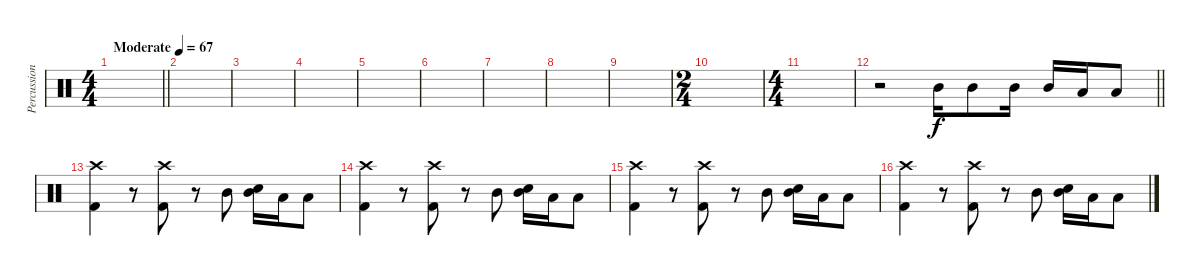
\track ("Percussion" "Percussion") {instrument percussion}
\staff {score}
\articulation defaults
\ts (4 4)
\tempo (67 "Moderate")
\clef neutral
\barLineRight lightlight
\ks c
|
|
|
|
|
|
|
|
|
\ts (2 4)
|
\ts (4 4)
|
\barLineRight lightlight
r.2 "Mid Tom (hit)".16 "Mid Tom (hit)".8 "Mid Tom (hit)".16 "Mid Tom (hit)".16 "Low Floor Tom (hit)".16 "Low Tom (hit)".8 |
("Crash high (hit)" "Kick (hit) 2").4 r.8 ("Crash high (hit)" "Kick (hit) 2").8 r.8 "Mid Tom (hit)".8 ("Mid Tom (hit)" "Snare (hit) 2").16 "Low Floor Tom (hit)".16 "Low Floor Tom (hit)".8 |
("Crash high (hit)" "Kick (hit) 2").4 r.8 ("Crash high (hit)" "Kick (hit) 2").8 r.8 "Mid Tom (hit)".8 ("Mid Tom (hit)" "Snare (hit) 2").16 "Low Floor Tom (hit)".16 "Low Floor Tom (hit)".8 |
("Crash high (hit)" "Kick (hit) 2").4 r.8 ("Crash high (hit)" "Kick (hit) 2").8 r.8 "Mid Tom (hit)".8 ("Mid Tom (hit)" "Snare (hit) 2").16 "Low Floor Tom (hit)".16 "Low Floor Tom (hit)".8 |
("Crash high (hit)" "Kick (hit) 2").4 r.8 ("Crash high (hit)" "Kick (hit) 2").8 r.8 "Mid Tom (hit)".8 ("Mid Tom (hit)" "Snare (hit) 2").16 "Low Floor Tom (hit)".16 "Low Floor Tom (hit)".8
